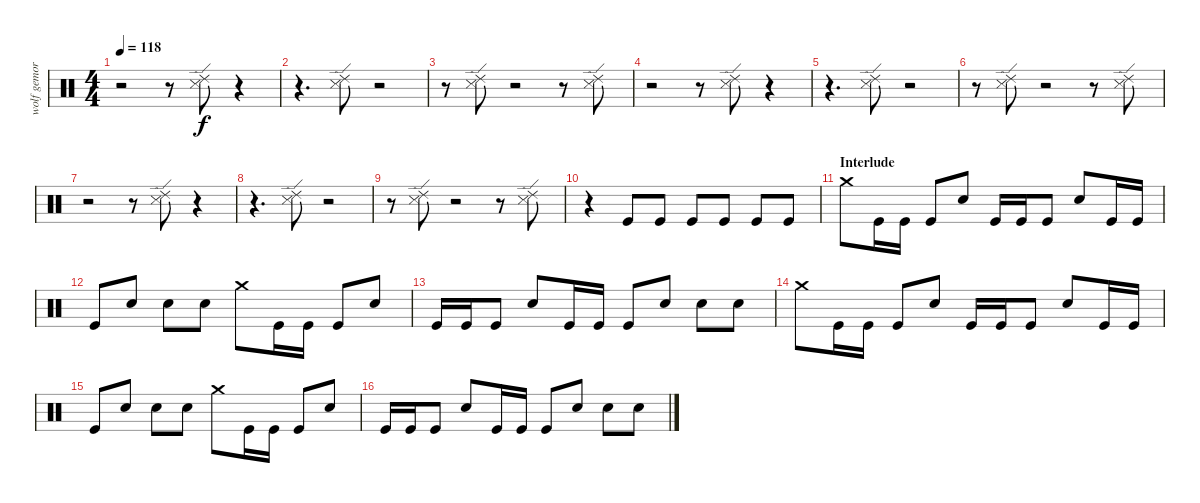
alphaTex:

\track ("wolf gemora" "wolf gemor") {instrument percussion}
\staff {score}
\articulation defaults
\ts (4 4)
\tempo 118
\clef neutral
\ks c
r.2{dy f} r.8 ("Snare (side stick) 3" "Ride (edge) 2").8 r.4 |
r.4{d} ("Snare (side stick) 3" "Ride (edge) 2").8 r.2 |
r.8 ("Snare (side stick) 3" "Ride (edge) 2").8 r.2 r.8 ("Snare (side stick) 3" "Ride (edge) 2").8 |
r.2 r.8 ("Snare (side stick) 3" "Ride (edge) 2").8 r.4 |
r.4{d} ("Snare (side stick) 3" "Ride (edge) 2").8 r.2 |
r.8 ("Snare (side stick) 3" "Ride (edge) 2").8 r.2 r.8 ("Snare (side stick) 3" "Ride (edge) 2").8 |
r.2 r.8 ("Snare (side stick) 3" "Ride (edge) 2").8 r.4 |
r.4{d} ("Snare (side stick) 3" "Ride (edge) 2").8 r.2 |
r.8 ("Snare (side stick) 3" "Ride (edge) 2").8 r.2 r.8 ("Snare (side stick) 3" "Ride (edge) 2").8 |
r.4{balance 8} "Kick (hit)".8 "Kick (hit)".8 "Kick (hit)".8 "Kick (hit)".8 "Kick (hit)".8 "Kick (hit)".8 |
\section ("" "Interlude")
"Crash medium (hit)".8{balance 10} "Kick (hit)".16 "Kick (hit)".16 "Kick (hit)".8 "Electric Snare (hit)".8 "Kick (hit)".16 "Kick (hit)".16 "Kick (hit)".8 "Electric Snare (hit)".8 "Kick (hit)".16 "Kick (hit)".16 |
"Kick (hit)".8 "Electric Snare (hit)".8 "Electric Snare (hit)".8 "Electric Snare (hit)".8 "Crash medium (hit)".8 "Kick (hit)".16 "Kick (hit)".16 "Kick (hit)".8 "Electric Snare (hit)".8 |
"Kick (hit)".16 "Kick (hit)".16 "Kick (hit)".8 "Electric Snare (hit)".8 "Kick (hit)".16 "Kick (hit)".16 "Kick (hit)".8 "Electric Snare (hit)".8 "Electric Snare (hit)".8 "Electric Snare (hit)".8 |
"Crash medium (hit)".8 "Kick (hit)".16 "Kick (hit)".16 "Kick (hit)".8 "Electric Snare (hit)".8 "Kick (hit)".16 "Kick (hit)".16 "Kick (hit)".8 "Electric Snare (hit)".8 "Kick (hit)".16 "Kick (hit)".16 |
"Kick (hit)".8 "Electric Snare (hit)".8 "Electric Snare (hit)".8 "Electric Snare (hit)".8 "Crash medium (hit)".8 "Kick (hit)".16 "Kick (hit)".16 "Kick (hit)".8 "Electric Snare (hit)".8 |
"Kick (hit)".16 "Kick (hit)".16 "Kick (hit)".8 "Electric Snare (hit)".8 "Kick (hit)".16 "Kick (hit)".16 "Kick (hit)".8 "Electric Snare (hit)".8 "Electric Snare (hit)".8 "Electric Snare (hit)".8
